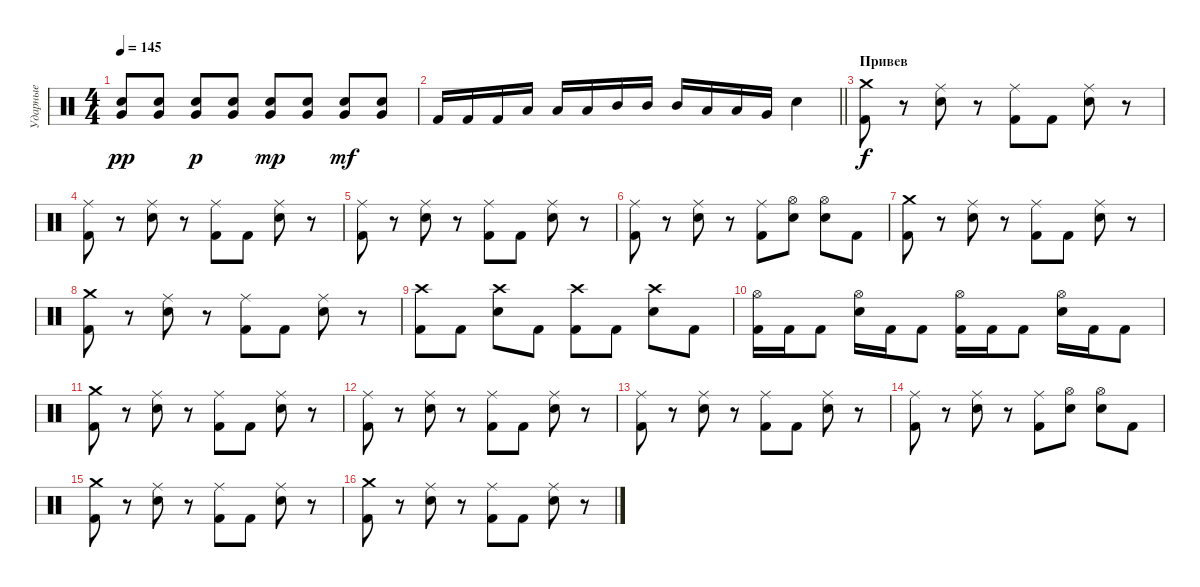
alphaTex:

\track ("Ударные" "Ударные") {instrument percussion bank 127}
\staff
\articulation defaults
\ts (4 4)
\tempo 145
\clef neutral
\ks c
("Snare (hit) 2" "Very Low Tom (hit)").8{dy pp} ("Snare (hit) 2" "Very Low Tom (hit)").8 ("Snare (hit) 2" "Very Low Tom (hit)").8{dy p} ("Snare (hit) 2" "Very Low Tom (hit)").8 ("Snare (hit) 2" "Very Low Tom (hit)").8{dy mp} ("Snare (hit) 2" "Very Low Tom (hit)").8 ("Snare (hit) 2" "Very Low Tom (hit)").8{dy mf} ("Snare (hit) 2" "Very Low Tom (hit)").8 |
\barLineRight lightlight "Kick (hit) 2".16 "Kick (hit) 2".16 "Kick (hit) 2".16 "Low Tom (hit)".16 "Low Tom (hit)".16 "Low Tom (hit)".16 "Mid Tom (hit)".16 "Mid Tom (hit)".16 "Mid Tom (hit)".16 "Low Tom (hit)".16 "Low Tom (hit)".16 "Very Low Tom (hit)".16 "Snare (hit) 2".4
|
\section ("" "Привев")
("Crash medium (hit)" "Kick (hit) 2").8{dy f} r.8 ("Ride (middle)" "Snare (hit) 2").8 r.8 ("Ride (middle)" "Kick (hit) 2").8 "Kick (hit) 2".8 ("Ride (middle)" "Snare (hit) 2").8 r.8 |
("Ride (middle)" "Kick (hit) 2").8 r.8 ("Ride (middle)" "Snare (hit) 2").8 r.8 ("Ride (middle)" "Kick (hit) 2").8 "Kick (hit) 2".8 ("Ride (middle)" "Snare (hit) 2").8 r.8 |
("Ride (middle)" "Kick (hit) 2").8 r.8 ("Ride (middle)" "Snare (hit) 2").8 r.8 ("Ride (middle)" "Kick (hit) 2").8 "Kick (hit) 2".8 ("Ride (middle)" "Snare (hit) 2").8 r.8 |
("Ride (middle)" "Kick (hit) 2").8 r.8 ("Ride (middle)" "Snare (hit) 2").8 r.8 ("Ride (middle)" "Kick (hit) 2").8 ("Hi-Hat (open)" "Snare (hit) 2").8 ("Hi-Hat (open)" "Snare (hit) 2").8 "Kick (hit) 2".8 |
("Crash medium (hit)" "Kick (hit) 2").8 r.8 ("Ride (middle)" "Snare (hit) 2").8 r.8 ("Ride (middle)" "Kick (hit) 2").8 "Kick (hit) 2".8 ("Ride (middle)" "Snare (hit) 2").8 r.8 |
("Crash medium (hit)" "Kick (hit) 2").8 r.8 ("Ride (middle)" "Snare (hit) 2").8 r.8 ("Ride (middle)" "Kick (hit) 2").8 "Kick (hit) 2".8 ("Ride (middle)" "Snare (hit) 2").8 r.8 |
("Kick (hit) 2" "Crash high (hit)").8 "Kick (hit) 2".8 ("Snare (hit) 2" "Crash high (hit)").8 "Kick (hit) 2".8 ("Kick (hit) 2" "Crash high (hit)").8 "Kick (hit) 2".8 ("Snare (hit) 2" "Crash high (hit)").8 "Kick (hit) 2".8 |
("Kick (hit) 2" "Hi-Hat (open)").16 "Kick (hit) 2".16 "Kick (hit) 2".8 ("Snare (hit) 2" "Hi-Hat (open)").16 "Kick (hit) 2".16 "Kick (hit) 2".8 ("Kick (hit) 2" "Hi-Hat (open)").16 "Kick (hit) 2".16 "Kick (hit) 2".8 ("Snare (hit) 2" "Hi-Hat (open)").16 "Kick (hit) 2".16 "Kick (hit) 2".8 |
("Crash medium (hit)" "Kick (hit) 2").8 r.8 ("Ride (middle)" "Snare (hit) 2").8 r.8 ("Ride (middle)" "Kick (hit) 2").8 "Kick (hit) 2".8 ("Ride (middle)" "Snare (hit) 2").8 r.8 |
("Ride (middle)" "Kick (hit) 2").8 r.8 ("Ride (middle)" "Snare (hit) 2").8 r.8 ("Ride (middle)" "Kick (hit) 2").8 "Kick (hit) 2".8 ("Ride (middle)" "Snare (hit) 2").8 r.8 |
("Ride (middle)" "Kick (hit) 2").8 r.8 ("Ride (middle)" "Snare (hit) 2").8 r.8 ("Ride (middle)" "Kick (hit) 2").8 "Kick (hit) 2".8 ("Ride (middle)" "Snare (hit) 2").8 r.8 |
("Ride (middle)" "Kick (hit) 2").8 r.8 ("Ride (middle)" "Snare (hit) 2").8 r.8 ("Ride (middle)" "Kick (hit) 2").8 ("Hi-Hat (open)" "Snare (hit) 2").8 ("Hi-Hat (open)" "Snare (hit) 2").8 "Kick (hit) 2".8 |
("Crash medium (hit)" "Kick (hit) 2").8 r.8 ("Ride (middle)" "Snare (hit) 2").8 r.8 ("Ride (middle)" "Kick (hit) 2").8 "Kick (hit) 2".8 ("Ride (middle)" "Snare (hit) 2").8 r.8 |
("Crash medium (hit)" "Kick (hit) 2").8 r.8 ("Ride (middle)" "Snare (hit) 2").8 r.8 ("Ride (middle)" "Kick (hit) 2").8 "Kick (hit) 2".8 ("Ride (middle)" "Snare (hit) 2").8 r.8
